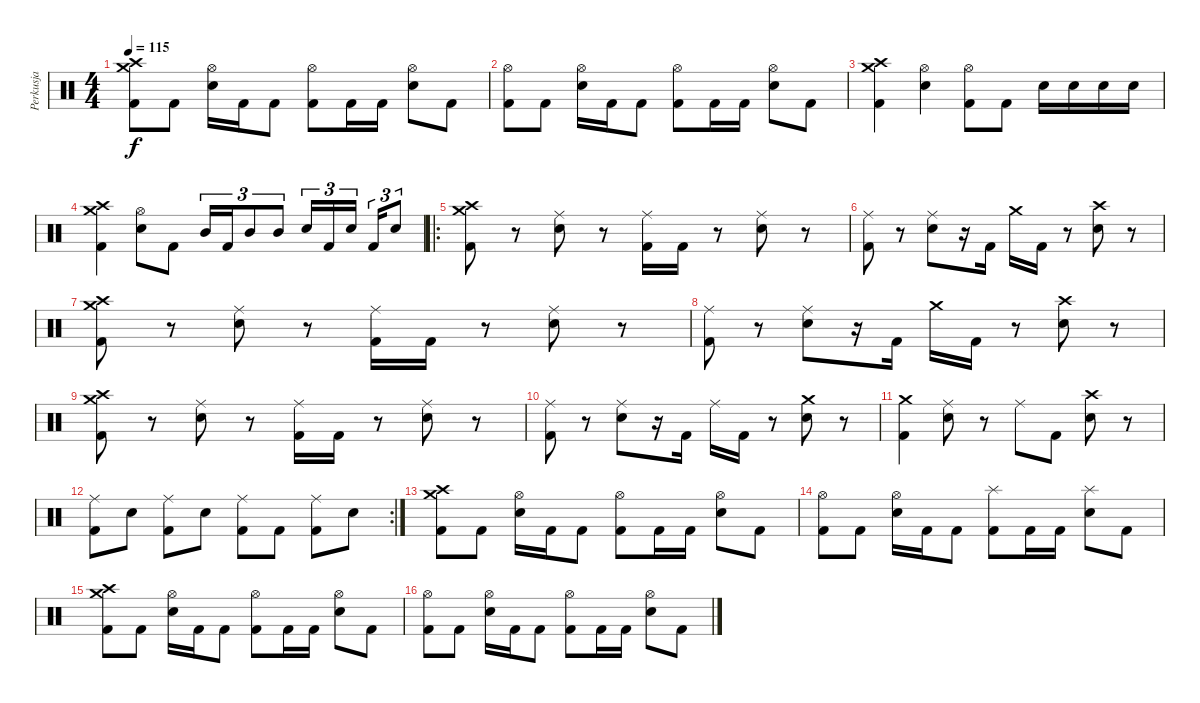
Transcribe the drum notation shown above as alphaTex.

\track ("Perkusja" "Perkusja") {instrument percussion}
\staff {score}
\articulation defaults
\ts (4 4)
\tempo 115
\clef neutral
\ks c
("Crash medium (hit)" "Crash high (hit)" "Kick (hit) 2").8{dy f} "Kick (hit) 2".8 ("Hi-Hat (open)" "Snare (hit) 2").16 "Kick (hit) 2".16 "Kick (hit) 2".8 ("Hi-Hat (open)" "Kick (hit) 2").8 "Kick (hit) 2".16 "Kick (hit) 2".16 ("Hi-Hat (open)" "Snare (hit) 2").8 "Kick (hit) 2".8 |
("Hi-Hat (open)" "Kick (hit) 2").8 "Kick (hit) 2".8 ("Hi-Hat (open)" "Snare (hit) 2").16 "Kick (hit) 2".16 "Kick (hit) 2".8 ("Hi-Hat (open)" "Kick (hit) 2").8 "Kick (hit) 2".16 "Kick (hit) 2".16 ("Hi-Hat (open)" "Snare (hit) 2").8 "Kick (hit) 2".8 |
("Crash medium (hit)" "Crash high (hit)" "Kick (hit) 2").4 ("Hi-Hat (open)" "Snare (hit) 2").4 ("Hi-Hat (open)" "Kick (hit) 2").8 "Kick (hit) 2".8 "Snare (hit) 2".16 "Snare (hit) 2".16 "Snare (hit) 2".16 "Snare (hit) 2".16 |
("Crash medium (hit)" "Crash high (hit)" "Kick (hit) 2").4 ("Hi-Hat (open)" "Snare (hit) 2").8 "Kick (hit) 2".8 "Mid Tom (hit)".16{tu (3 2)} "Kick (hit) 2".16{tu (3 2)} "Mid Tom (hit)".8{tu (3 2)} "Mid Tom (hit)".8{tu (3 2)} "Snare (hit) 2".16{tu (3 2)} "Kick (hit) 2".16{tu (3 2)} "Snare (hit) 2".16{tu (3 2)} "Kick (hit) 2".16{tu (3 2)} "Snare (hit) 2".8{tu (3 2)} |
\ro
("Crash medium (hit)" "Crash high (hit)" "Kick (hit) 2").8 r.8 ("Ride (middle)" "Snare (hit) 2").8 r.8 ("Ride (middle)" "Kick (hit) 2").16 "Kick (hit) 2".16 r.8 ("Ride (middle)" "Snare (hit) 2").8 r.8 |
("Ride (middle)" "Kick (hit) 2").8 r.8 ("Ride (middle)" "Snare (hit) 2").8 r.16 "Kick (hit) 2".16 "Crash medium (hit)".16 "Kick (hit) 2".16 r.8 ("Crash high (hit)" "Snare (hit) 2").8 r.8 |
("Crash medium (hit)" "Crash high (hit)" "Kick (hit) 2").8 r.8 ("Ride (middle)" "Snare (hit) 2").8 r.8 ("Ride (middle)" "Kick (hit) 2").16 "Kick (hit) 2".16 r.8 ("Ride (middle)" "Snare (hit) 2").8 r.8 |
("Ride (middle)" "Kick (hit) 2").8 r.8 ("Ride (middle)" "Snare (hit) 2").8 r.16 "Kick (hit) 2".16 "Crash medium (hit)".16 "Kick (hit) 2".16 r.8 ("Crash high (hit)" "Snare (hit) 2").8 r.8 |
("Crash medium (hit)" "Crash high (hit)" "Kick (hit) 2").8 r.8 ("Ride (middle)" "Snare (hit) 2").8 r.8 ("Ride (middle)" "Kick (hit) 2").16 "Kick (hit) 2".16 r.8 ("Ride (middle)" "Snare (hit) 2").8 r.8 |
("Ride (middle)" "Kick (hit) 2").8 r.8 ("Ride (middle)" "Snare (hit) 2").8 r.16 "Kick (hit) 2".16 "Ride (middle)".16 "Kick (hit) 2".16 r.8 ("Crash medium (hit)" "Snare (hit) 2").8 r.8 |
("Crash medium (hit)" "Kick (hit) 2").4 ("Ride (middle)" "Snare (hit) 2").8 r.8 "Ride (middle)".8 "Kick (hit) 2".8 ("Crash high (hit)" "Snare (hit) 2").8 r.8 |
\rc 2
("Ride (middle)" "Kick (hit) 2").8 "Snare (hit) 2".8 ("Ride (middle)" "Kick (hit) 2").8 "Snare (hit) 2".8 ("Ride (middle)" "Kick (hit) 2").8 "Kick (hit) 2".8 ("Ride (middle)" "Kick (hit) 2").8 "Snare (hit) 2".8 |
("Crash medium (hit)" "Crash high (hit)" "Kick (hit) 2").8 "Kick (hit) 2".8 ("Hi-Hat (open)" "Snare (hit) 2").16 "Kick (hit) 2".16 "Kick (hit) 2".8 ("Hi-Hat (open)" "Kick (hit) 2").8 "Kick (hit) 2".16 "Kick (hit) 2".16 ("Hi-Hat (open)" "Snare (hit) 2").8 "Kick (hit) 2".8 |
("Hi-Hat (open)" "Kick (hit) 2").8 "Kick (hit) 2".8 ("Hi-Hat (open)" "Snare (hit) 2").16 "Kick (hit) 2".16 "Kick (hit) 2".8 ("Splash (hit)" "Kick (hit) 2").8 "Kick (hit) 2".16 "Kick (hit) 2".16 ("Splash (hit)" "Snare (hit) 2").8 "Kick (hit) 2".8 |
("Crash medium (hit)" "Crash high (hit)" "Kick (hit) 2").8 "Kick (hit) 2".8 ("Hi-Hat (open)" "Snare (hit) 2").16 "Kick (hit) 2".16 "Kick (hit) 2".8 ("Hi-Hat (open)" "Kick (hit) 2").8 "Kick (hit) 2".16 "Kick (hit) 2".16 ("Hi-Hat (open)" "Snare (hit) 2").8 "Kick (hit) 2".8 |
("Hi-Hat (open)" "Kick (hit) 2").8 "Kick (hit) 2".8 ("Hi-Hat (open)" "Snare (hit) 2").16 "Kick (hit) 2".16 "Kick (hit) 2".8 ("Hi-Hat (open)" "Kick (hit) 2").8 "Kick (hit) 2".16 "Kick (hit) 2".16 ("Hi-Hat (open)" "Snare (hit) 2").8 "Kick (hit) 2".8
